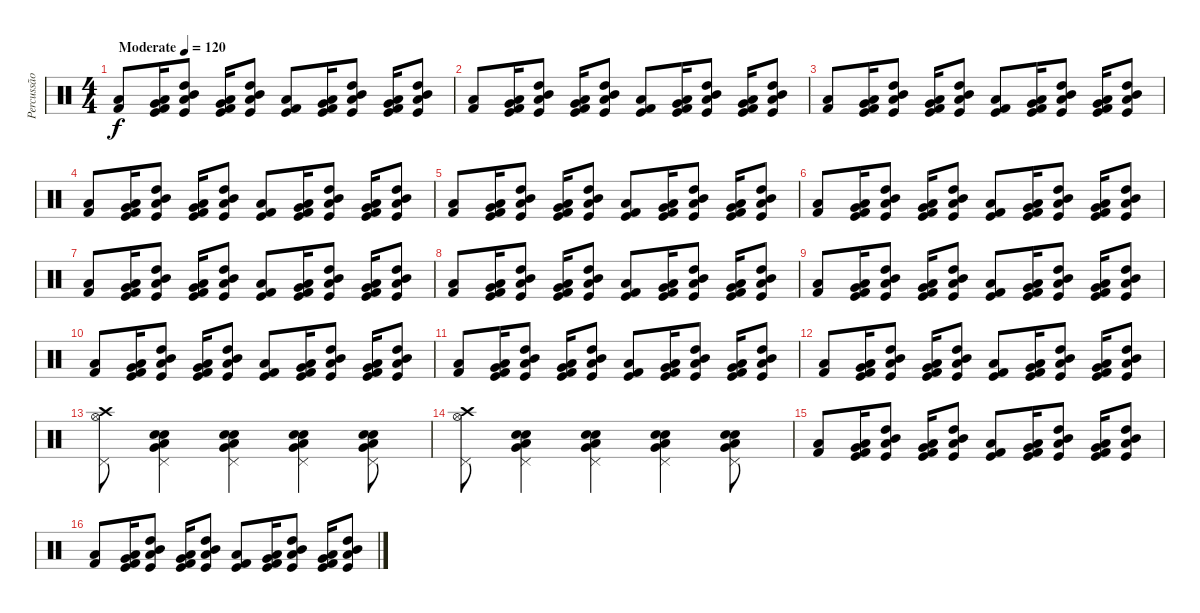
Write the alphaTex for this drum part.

\track ("Percussão" "Percussão") {instrument percussion}
\staff {score}
\articulation defaults
\ts (4 4)
\tempo (120 "Moderate")
\clef neutral
\ks c
("Kick (hit) 2" "Low Floor Tom (hit)").8{dy f} ("Low Tom (hit)" "Kick (hit) 2" "Very Low Tom (hit)" "Kick (hit)").16 ("Low Tom (hit)" "Mid Tom (hit)" "Kick (hit)" "High Tom (hit)").8 ("Low Tom (hit)" "Kick (hit) 2" "Very Low Tom (hit)" "Kick (hit)").16 ("Low Tom (hit)" "Mid Tom (hit)" "Kick (hit)" "High Tom (hit)").8 ("Kick (hit) 2" "Kick (hit)" "Low Floor Tom (hit)").8 ("Low Tom (hit)" "Kick (hit) 2" "Very Low Tom (hit)" "Kick (hit)").16 ("Low Tom (hit)" "Mid Tom (hit)" "Kick (hit)" "High Tom (hit)").8 ("Low Tom (hit)" "Kick (hit) 2" "Very Low Tom (hit)" "Kick (hit)").16 ("Low Tom (hit)" "Mid Tom (hit)" "Kick (hit)" "High Tom (hit)").8 |
("Kick (hit) 2" "Low Floor Tom (hit)").8 ("Low Tom (hit)" "Kick (hit) 2" "Very Low Tom (hit)" "Kick (hit)").16 ("Low Tom (hit)" "Mid Tom (hit)" "Kick (hit)" "High Tom (hit)").8 ("Low Tom (hit)" "Kick (hit) 2" "Very Low Tom (hit)" "Kick (hit)").16 ("Low Tom (hit)" "Mid Tom (hit)" "Kick (hit)" "High Tom (hit)").8 ("Kick (hit) 2" "Kick (hit)" "Low Floor Tom (hit)").8 ("Low Tom (hit)" "Kick (hit) 2" "Very Low Tom (hit)" "Kick (hit)").16 ("Low Tom (hit)" "Mid Tom (hit)" "Kick (hit)" "High Tom (hit)").8 ("Low Tom (hit)" "Kick (hit) 2" "Very Low Tom (hit)" "Kick (hit)").16 ("Low Tom (hit)" "Mid Tom (hit)" "Kick (hit)" "High Tom (hit)").8 |
("Kick (hit) 2" "Low Floor Tom (hit)").8 ("Low Tom (hit)" "Kick (hit) 2" "Very Low Tom (hit)" "Kick (hit)").16 ("Low Tom (hit)" "Mid Tom (hit)" "Kick (hit)" "High Tom (hit)").8 ("Low Tom (hit)" "Kick (hit) 2" "Very Low Tom (hit)" "Kick (hit)").16 ("Low Tom (hit)" "Mid Tom (hit)" "Kick (hit)" "High Tom (hit)").8 ("Kick (hit) 2" "Kick (hit)" "Low Floor Tom (hit)").8 ("Low Tom (hit)" "Kick (hit) 2" "Very Low Tom (hit)" "Kick (hit)").16 ("Low Tom (hit)" "Mid Tom (hit)" "Kick (hit)" "High Tom (hit)").8 ("Low Tom (hit)" "Kick (hit) 2" "Very Low Tom (hit)" "Kick (hit)").16 ("Low Tom (hit)" "Mid Tom (hit)" "Kick (hit)" "High Tom (hit)").8 |
("Kick (hit) 2" "Low Floor Tom (hit)").8 ("Low Tom (hit)" "Kick (hit) 2" "Very Low Tom (hit)" "Kick (hit)").16 ("Low Tom (hit)" "Mid Tom (hit)" "Kick (hit)" "High Tom (hit)").8 ("Low Tom (hit)" "Kick (hit) 2" "Very Low Tom (hit)" "Kick (hit)").16 ("Low Tom (hit)" "Mid Tom (hit)" "Kick (hit)" "High Tom (hit)").8 ("Kick (hit) 2" "Kick (hit)" "Low Floor Tom (hit)").8 ("Low Tom (hit)" "Kick (hit) 2" "Very Low Tom (hit)" "Kick (hit)").16 ("Low Tom (hit)" "Mid Tom (hit)" "Kick (hit)" "High Tom (hit)").8 ("Low Tom (hit)" "Kick (hit) 2" "Very Low Tom (hit)" "Kick (hit)").16 ("Low Tom (hit)" "Mid Tom (hit)" "Kick (hit)" "High Tom (hit)").8 |
("Kick (hit) 2" "Low Floor Tom (hit)").8 ("Low Tom (hit)" "Kick (hit) 2" "Very Low Tom (hit)" "Kick (hit)").16 ("Low Tom (hit)" "Mid Tom (hit)" "Kick (hit)" "High Tom (hit)").8 ("Low Tom (hit)" "Kick (hit) 2" "Very Low Tom (hit)" "Kick (hit)").16 ("Low Tom (hit)" "Mid Tom (hit)" "Kick (hit)" "High Tom (hit)").8 ("Kick (hit) 2" "Kick (hit)" "Low Floor Tom (hit)").8 ("Low Tom (hit)" "Kick (hit) 2" "Very Low Tom (hit)" "Kick (hit)").16 ("Low Tom (hit)" "Mid Tom (hit)" "Kick (hit)" "High Tom (hit)").8 ("Low Tom (hit)" "Kick (hit) 2" "Very Low Tom (hit)" "Kick (hit)").16 ("Low Tom (hit)" "Mid Tom (hit)" "Kick (hit)" "High Tom (hit)").8 |
("Kick (hit) 2" "Low Floor Tom (hit)").8 ("Low Tom (hit)" "Kick (hit) 2" "Very Low Tom (hit)" "Kick (hit)").16 ("Low Tom (hit)" "Mid Tom (hit)" "Kick (hit)" "High Tom (hit)").8 ("Low Tom (hit)" "Kick (hit) 2" "Very Low Tom (hit)" "Kick (hit)").16 ("Low Tom (hit)" "Mid Tom (hit)" "Kick (hit)" "High Tom (hit)").8 ("Kick (hit) 2" "Kick (hit)" "Low Floor Tom (hit)").8 ("Low Tom (hit)" "Kick (hit) 2" "Very Low Tom (hit)" "Kick (hit)").16 ("Low Tom (hit)" "Mid Tom (hit)" "Kick (hit)" "High Tom (hit)").8 ("Low Tom (hit)" "Kick (hit) 2" "Very Low Tom (hit)" "Kick (hit)").16 ("Low Tom (hit)" "Mid Tom (hit)" "Kick (hit)" "High Tom (hit)").8 |
("Kick (hit) 2" "Low Floor Tom (hit)").8 ("Low Tom (hit)" "Kick (hit) 2" "Very Low Tom (hit)" "Kick (hit)").16 ("Low Tom (hit)" "Mid Tom (hit)" "Kick (hit)" "High Tom (hit)").8 ("Low Tom (hit)" "Kick (hit) 2" "Very Low Tom (hit)" "Kick (hit)").16 ("Low Tom (hit)" "Mid Tom (hit)" "Kick (hit)" "High Tom (hit)").8 ("Kick (hit) 2" "Kick (hit)" "Low Floor Tom (hit)").8 ("Low Tom (hit)" "Kick (hit) 2" "Very Low Tom (hit)" "Kick (hit)").16 ("Low Tom (hit)" "Mid Tom (hit)" "Kick (hit)" "High Tom (hit)").8 ("Low Tom (hit)" "Kick (hit) 2" "Very Low Tom (hit)" "Kick (hit)").16 ("Low Tom (hit)" "Mid Tom (hit)" "Kick (hit)" "High Tom (hit)").8 |
("Kick (hit) 2" "Low Floor Tom (hit)").8 ("Low Tom (hit)" "Kick (hit) 2" "Very Low Tom (hit)" "Kick (hit)").16 ("Low Tom (hit)" "Mid Tom (hit)" "Kick (hit)" "High Tom (hit)").8 ("Low Tom (hit)" "Kick (hit) 2" "Very Low Tom (hit)" "Kick (hit)").16 ("Low Tom (hit)" "Mid Tom (hit)" "Kick (hit)" "High Tom (hit)").8 ("Kick (hit) 2" "Kick (hit)" "Low Floor Tom (hit)").8 ("Low Tom (hit)" "Kick (hit) 2" "Very Low Tom (hit)" "Kick (hit)").16 ("Low Tom (hit)" "Mid Tom (hit)" "Kick (hit)" "High Tom (hit)").8 ("Low Tom (hit)" "Kick (hit) 2" "Very Low Tom (hit)" "Kick (hit)").16 ("Low Tom (hit)" "Mid Tom (hit)" "Kick (hit)" "High Tom (hit)").8 |
("Kick (hit) 2" "Low Floor Tom (hit)").8 ("Low Tom (hit)" "Kick (hit) 2" "Very Low Tom (hit)" "Kick (hit)").16 ("Low Tom (hit)" "Mid Tom (hit)" "Kick (hit)" "High Tom (hit)").8 ("Low Tom (hit)" "Kick (hit) 2" "Very Low Tom (hit)" "Kick (hit)").16 ("Low Tom (hit)" "Mid Tom (hit)" "Kick (hit)" "High Tom (hit)").8 ("Kick (hit) 2" "Kick (hit)" "Low Floor Tom (hit)").8 ("Low Tom (hit)" "Kick (hit) 2" "Very Low Tom (hit)" "Kick (hit)").16 ("Low Tom (hit)" "Mid Tom (hit)" "Kick (hit)" "High Tom (hit)").8 ("Low Tom (hit)" "Kick (hit) 2" "Very Low Tom (hit)" "Kick (hit)").16 ("Low Tom (hit)" "Mid Tom (hit)" "Kick (hit)" "High Tom (hit)").8 |
("Kick (hit) 2" "Low Floor Tom (hit)").8 ("Low Tom (hit)" "Kick (hit) 2" "Very Low Tom (hit)" "Kick (hit)").16 ("Low Tom (hit)" "Mid Tom (hit)" "Kick (hit)" "High Tom (hit)").8 ("Low Tom (hit)" "Kick (hit) 2" "Very Low Tom (hit)" "Kick (hit)").16 ("Low Tom (hit)" "Mid Tom (hit)" "Kick (hit)" "High Tom (hit)").8 ("Kick (hit) 2" "Kick (hit)" "Low Floor Tom (hit)").8 ("Low Tom (hit)" "Kick (hit) 2" "Very Low Tom (hit)" "Kick (hit)").16 ("Low Tom (hit)" "Mid Tom (hit)" "Kick (hit)" "High Tom (hit)").8 ("Low Tom (hit)" "Kick (hit) 2" "Very Low Tom (hit)" "Kick (hit)").16 ("Low Tom (hit)" "Mid Tom (hit)" "Kick (hit)" "High Tom (hit)").8 |
("Kick (hit) 2" "Low Floor Tom (hit)").8 ("Low Tom (hit)" "Kick (hit) 2" "Very Low Tom (hit)" "Kick (hit)").16 ("Low Tom (hit)" "Mid Tom (hit)" "Kick (hit)" "High Tom (hit)").8 ("Low Tom (hit)" "Kick (hit) 2" "Very Low Tom (hit)" "Kick (hit)").16 ("Low Tom (hit)" "Mid Tom (hit)" "Kick (hit)" "High Tom (hit)").8 ("Kick (hit) 2" "Kick (hit)" "Low Floor Tom (hit)").8 ("Low Tom (hit)" "Kick (hit) 2" "Very Low Tom (hit)" "Kick (hit)").16 ("Low Tom (hit)" "Mid Tom (hit)" "Kick (hit)" "High Tom (hit)").8 ("Low Tom (hit)" "Kick (hit) 2" "Very Low Tom (hit)" "Kick (hit)").16 ("Low Tom (hit)" "Mid Tom (hit)" "Kick (hit)" "High Tom (hit)").8 |
("Kick (hit) 2" "Low Floor Tom (hit)").8 ("Low Tom (hit)" "Kick (hit) 2" "Very Low Tom (hit)" "Kick (hit)").16 ("Low Tom (hit)" "Mid Tom (hit)" "Kick (hit)" "High Tom (hit)").8 ("Low Tom (hit)" "Kick (hit) 2" "Very Low Tom (hit)" "Kick (hit)").16 ("Low Tom (hit)" "Mid Tom (hit)" "Kick (hit)" "High Tom (hit)").8 ("Kick (hit) 2" "Kick (hit)" "Low Floor Tom (hit)").8 ("Low Tom (hit)" "Kick (hit) 2" "Very Low Tom (hit)" "Kick (hit)").16 ("Low Tom (hit)" "Mid Tom (hit)" "Kick (hit)" "High Tom (hit)").8 ("Low Tom (hit)" "Kick (hit) 2" "Very Low Tom (hit)" "Kick (hit)").16 ("Low Tom (hit)" "Mid Tom (hit)" "Kick (hit)" "High Tom (hit)").8 |
("Hi-Hat (open)" "Crash high (hit)" "Pedal Hi-Hat (hit)").8 ("Pedal Hi-Hat (hit)" "Snare (hit) 2" "Electric Snare (hit)" "Low Tom (hit)" "Very Low Tom (hit)").4 ("Pedal Hi-Hat (hit)" "Snare (hit) 2" "Electric Snare (hit)" "Low Tom (hit)" "Very Low Tom (hit)").4 ("Pedal Hi-Hat (hit)" "Snare (hit) 2" "Electric Snare (hit)" "Low Tom (hit)" "Very Low Tom (hit)").4 ("Pedal Hi-Hat (hit)" "Snare (hit) 2" "Electric Snare (hit)" "Low Tom (hit)" "Very Low Tom (hit)").8 |
("Hi-Hat (open)" "Crash high (hit)" "Pedal Hi-Hat (hit)").8 ("Pedal Hi-Hat (hit)" "Snare (hit) 2" "Electric Snare (hit)" "Low Tom (hit)" "Very Low Tom (hit)").4 ("Pedal Hi-Hat (hit)" "Snare (hit) 2" "Electric Snare (hit)" "Low Tom (hit)" "Very Low Tom (hit)").4 ("Pedal Hi-Hat (hit)" "Snare (hit) 2" "Electric Snare (hit)" "Low Tom (hit)" "Very Low Tom (hit)").4 ("Pedal Hi-Hat (hit)" "Snare (hit) 2" "Electric Snare (hit)" "Low Tom (hit)" "Very Low Tom (hit)").8 |
("Kick (hit) 2" "Low Floor Tom (hit)").8 ("Low Tom (hit)" "Kick (hit) 2" "Very Low Tom (hit)" "Kick (hit)").16 ("Low Tom (hit)" "Mid Tom (hit)" "Kick (hit)" "High Tom (hit)").8 ("Low Tom (hit)" "Kick (hit) 2" "Very Low Tom (hit)" "Kick (hit)").16 ("Low Tom (hit)" "Mid Tom (hit)" "Kick (hit)" "High Tom (hit)").8 ("Kick (hit) 2" "Kick (hit)" "Low Floor Tom (hit)").8 ("Low Tom (hit)" "Kick (hit) 2" "Very Low Tom (hit)" "Kick (hit)").16 ("Low Tom (hit)" "Mid Tom (hit)" "Kick (hit)" "High Tom (hit)").8 ("Low Tom (hit)" "Kick (hit) 2" "Very Low Tom (hit)" "Kick (hit)").16 ("Low Tom (hit)" "Mid Tom (hit)" "Kick (hit)" "High Tom (hit)").8 |
("Kick (hit) 2" "Low Floor Tom (hit)").8 ("Low Tom (hit)" "Kick (hit) 2" "Very Low Tom (hit)" "Kick (hit)").16 ("Low Tom (hit)" "Mid Tom (hit)" "Kick (hit)" "High Tom (hit)").8 ("Low Tom (hit)" "Kick (hit) 2" "Very Low Tom (hit)" "Kick (hit)").16 ("Low Tom (hit)" "Mid Tom (hit)" "Kick (hit)" "High Tom (hit)").8 ("Kick (hit) 2" "Kick (hit)" "Low Floor Tom (hit)").8 ("Low Tom (hit)" "Kick (hit) 2" "Very Low Tom (hit)" "Kick (hit)").16 ("Low Tom (hit)" "Mid Tom (hit)" "Kick (hit)" "High Tom (hit)").8 ("Low Tom (hit)" "Kick (hit) 2" "Very Low Tom (hit)" "Kick (hit)").16 ("Low Tom (hit)" "Mid Tom (hit)" "Kick (hit)" "High Tom (hit)").8
